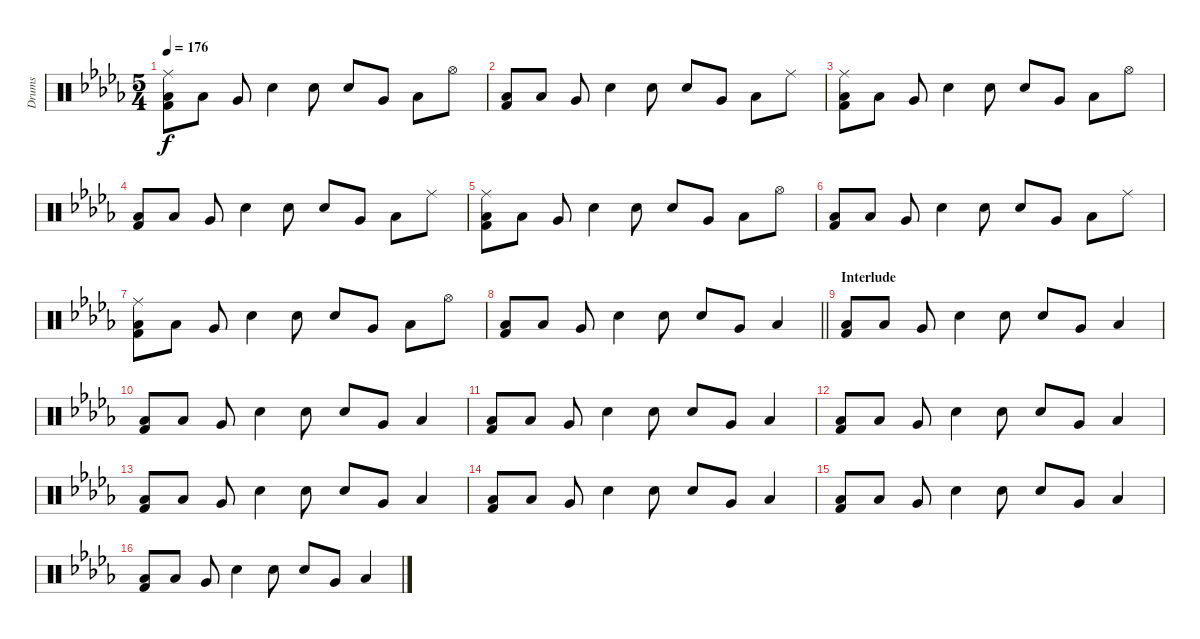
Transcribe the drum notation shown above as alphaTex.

\track ("Drums" "Drums") {instrument percussion}
\staff {score}
\articulation defaults
\ts (5 4)
\tempo 176
\clef neutral
\ks db
("Ride (middle)" "Low Floor Tom (hit)" "Kick (hit) 2").8{dy f} "Low Floor Tom (hit)".8 "Very Low Tom (hit)".8 "Snare (hit) 2".4 "Snare (hit) 2".8 "Snare (hit) 2".8 "Very Low Tom (hit)".8 "Low Floor Tom (hit)".8 "Hi-Hat (open)".8 |
("Low Floor Tom (hit)" "Kick (hit) 2").8 "Low Floor Tom (hit)".8 "Very Low Tom (hit)".8 "Snare (hit) 2".4 "Snare (hit) 2".8 "Snare (hit) 2".8 "Very Low Tom (hit)".8 "Low Floor Tom (hit)".8 "Ride (middle)".8 |
("Ride (middle)" "Low Floor Tom (hit)" "Kick (hit) 2").8 "Low Floor Tom (hit)".8 "Very Low Tom (hit)".8 "Snare (hit) 2".4 "Snare (hit) 2".8 "Snare (hit) 2".8 "Very Low Tom (hit)".8 "Low Floor Tom (hit)".8 "Hi-Hat (open)".8 |
("Low Floor Tom (hit)" "Kick (hit) 2").8 "Low Floor Tom (hit)".8 "Very Low Tom (hit)".8 "Snare (hit) 2".4 "Snare (hit) 2".8 "Snare (hit) 2".8 "Very Low Tom (hit)".8 "Low Floor Tom (hit)".8 "Ride (middle)".8 |
("Ride (middle)" "Low Floor Tom (hit)" "Kick (hit) 2").8 "Low Floor Tom (hit)".8 "Very Low Tom (hit)".8 "Snare (hit) 2".4 "Snare (hit) 2".8 "Snare (hit) 2".8 "Very Low Tom (hit)".8 "Low Floor Tom (hit)".8 "Hi-Hat (open)".8 |
("Low Floor Tom (hit)" "Kick (hit) 2").8 "Low Floor Tom (hit)".8 "Very Low Tom (hit)".8 "Snare (hit) 2".4 "Snare (hit) 2".8 "Snare (hit) 2".8 "Very Low Tom (hit)".8 "Low Floor Tom (hit)".8 "Ride (middle)".8 |
("Ride (middle)" "Low Floor Tom (hit)" "Kick (hit) 2").8 "Low Floor Tom (hit)".8 "Very Low Tom (hit)".8 "Snare (hit) 2".4 "Snare (hit) 2".8 "Snare (hit) 2".8 "Very Low Tom (hit)".8 "Low Floor Tom (hit)".8 "Hi-Hat (open)".8 |
\barLineRight lightlight
("Low Floor Tom (hit)" "Kick (hit) 2").8 "Low Floor Tom (hit)".8 "Very Low Tom (hit)".8 "Snare (hit) 2".4 "Snare (hit) 2".8 "Snare (hit) 2".8 "Very Low Tom (hit)".8 "Low Floor Tom (hit)".4 |
\section ("" "Interlude")
("Low Floor Tom (hit)" "Kick (hit) 2").8 "Low Floor Tom (hit)".8 "Very Low Tom (hit)".8 "Snare (hit) 2".4 "Snare (hit) 2".8 "Snare (hit) 2".8 "Very Low Tom (hit)".8 "Low Floor Tom (hit)".4 |
("Low Floor Tom (hit)" "Kick (hit) 2").8 "Low Floor Tom (hit)".8 "Very Low Tom (hit)".8 "Snare (hit) 2".4 "Snare (hit) 2".8 "Snare (hit) 2".8 "Very Low Tom (hit)".8 "Low Floor Tom (hit)".4 |
("Low Floor Tom (hit)" "Kick (hit) 2").8 "Low Floor Tom (hit)".8 "Very Low Tom (hit)".8 "Snare (hit) 2".4 "Snare (hit) 2".8 "Snare (hit) 2".8 "Very Low Tom (hit)".8 "Low Floor Tom (hit)".4 |
("Low Floor Tom (hit)" "Kick (hit) 2").8 "Low Floor Tom (hit)".8 "Very Low Tom (hit)".8 "Snare (hit) 2".4 "Snare (hit) 2".8 "Snare (hit) 2".8 "Very Low Tom (hit)".8 "Low Floor Tom (hit)".4 |
("Low Floor Tom (hit)" "Kick (hit) 2").8 "Low Floor Tom (hit)".8 "Very Low Tom (hit)".8 "Snare (hit) 2".4 "Snare (hit) 2".8 "Snare (hit) 2".8 "Very Low Tom (hit)".8 "Low Floor Tom (hit)".4 |
("Low Floor Tom (hit)" "Kick (hit) 2").8 "Low Floor Tom (hit)".8 "Very Low Tom (hit)".8 "Snare (hit) 2".4 "Snare (hit) 2".8 "Snare (hit) 2".8 "Very Low Tom (hit)".8 "Low Floor Tom (hit)".4 |
("Low Floor Tom (hit)" "Kick (hit) 2").8 "Low Floor Tom (hit)".8 "Very Low Tom (hit)".8 "Snare (hit) 2".4 "Snare (hit) 2".8 "Snare (hit) 2".8 "Very Low Tom (hit)".8 "Low Floor Tom (hit)".4 |
("Low Floor Tom (hit)" "Kick (hit) 2").8 "Low Floor Tom (hit)".8 "Very Low Tom (hit)".8 "Snare (hit) 2".4 "Snare (hit) 2".8 "Snare (hit) 2".8 "Very Low Tom (hit)".8 "Low Floor Tom (hit)".4
